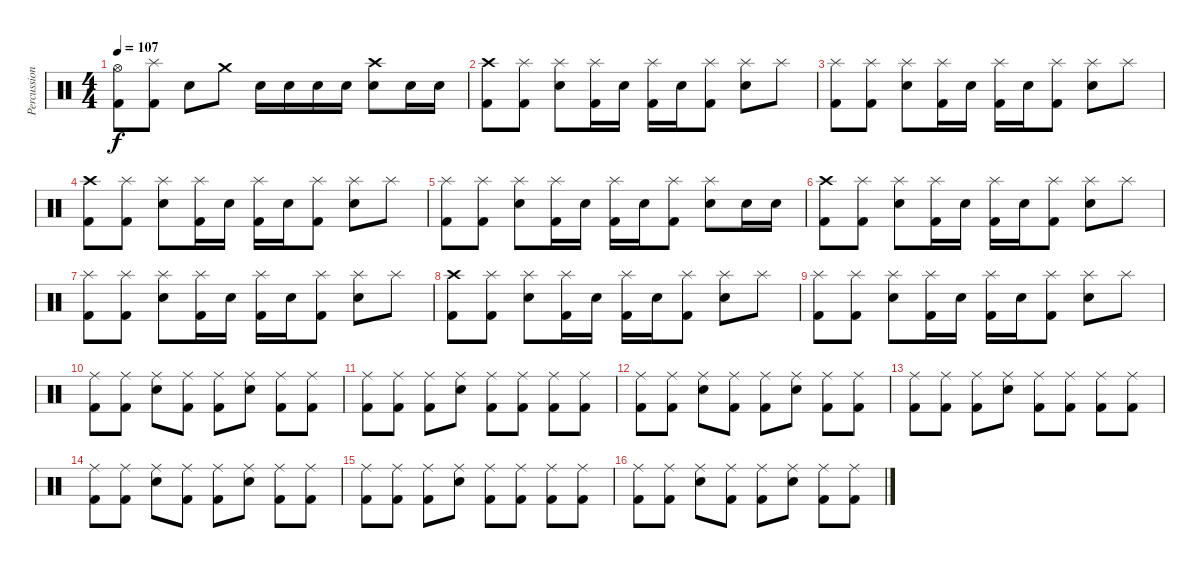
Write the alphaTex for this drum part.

\track ("Percussions" "Percussion") {instrument percussion}
\staff {score}
\articulation defaults
\ts (4 4)
\tempo 107
\clef neutral
\ks c
("Hi-Hat (open)" "Kick (hit) 2").8{dy f} ("Splash (hit)" "Kick (hit) 2").8 "Snare (hit) 2".8 "Crash medium (hit)".8 "Snare (hit) 2".16 "Snare (hit) 2".16 "Snare (hit) 2".16 "Snare (hit) 2".16 ("Crash high (hit)" "Snare (hit) 2").8 "Snare (hit) 2".16 "Snare (hit) 2".16 |
("Crash high (hit)" "Kick (hit) 2").8 ("Splash (hit)" "Kick (hit) 2").8 ("Splash (hit)" "Snare (hit) 2").8 ("Splash (hit)" "Kick (hit) 2").16 "Snare (hit) 2".16 ("Splash (hit)" "Kick (hit) 2").16 "Snare (hit) 2".16 ("Splash (hit)" "Kick (hit) 2").8 ("Splash (hit)" "Snare (hit) 2").8 "Splash (hit)".8 |
("Splash (hit)" "Kick (hit) 2").8 ("Splash (hit)" "Kick (hit) 2").8 ("Splash (hit)" "Snare (hit) 2").8 ("Splash (hit)" "Kick (hit) 2").16 "Snare (hit) 2".16 ("Splash (hit)" "Kick (hit) 2").16 "Snare (hit) 2".16 ("Splash (hit)" "Kick (hit) 2").8 ("Splash (hit)" "Snare (hit) 2").8 "Splash (hit)".8 |
("Crash high (hit)" "Kick (hit) 2").8 ("Splash (hit)" "Kick (hit) 2").8 ("Splash (hit)" "Snare (hit) 2").8 ("Splash (hit)" "Kick (hit) 2").16 "Snare (hit) 2".16 ("Splash (hit)" "Kick (hit) 2").16 "Snare (hit) 2".16 ("Splash (hit)" "Kick (hit) 2").8 ("Splash (hit)" "Snare (hit) 2").8 "Splash (hit)".8 |
("Splash (hit)" "Kick (hit) 2").8 ("Splash (hit)" "Kick (hit) 2").8 ("Splash (hit)" "Snare (hit) 2").8 ("Splash (hit)" "Kick (hit) 2").16 "Snare (hit) 2".16 ("Splash (hit)" "Kick (hit) 2").16 "Snare (hit) 2".16 ("Splash (hit)" "Kick (hit) 2").8 ("Splash (hit)" "Snare (hit) 2").8 "Snare (hit) 2".16 "Snare (hit) 2".16 |
("Crash high (hit)" "Kick (hit) 2").8 ("Splash (hit)" "Kick (hit) 2").8 ("Splash (hit)" "Snare (hit) 2").8 ("Splash (hit)" "Kick (hit) 2").16 "Snare (hit) 2".16 ("Splash (hit)" "Kick (hit) 2").16 "Snare (hit) 2".16 ("Splash (hit)" "Kick (hit) 2").8 ("Splash (hit)" "Snare (hit) 2").8 "Splash (hit)".8 |
("Splash (hit)" "Kick (hit) 2").8 ("Splash (hit)" "Kick (hit) 2").8 ("Splash (hit)" "Snare (hit) 2").8 ("Splash (hit)" "Kick (hit) 2").16 "Snare (hit) 2".16 ("Splash (hit)" "Kick (hit) 2").16 "Snare (hit) 2".16 ("Splash (hit)" "Kick (hit) 2").8 ("Splash (hit)" "Snare (hit) 2").8 "Splash (hit)".8 |
("Crash high (hit)" "Kick (hit) 2").8 ("Splash (hit)" "Kick (hit) 2").8 ("Splash (hit)" "Snare (hit) 2").8 ("Splash (hit)" "Kick (hit) 2").16 "Snare (hit) 2".16 ("Splash (hit)" "Kick (hit) 2").16 "Snare (hit) 2".16 ("Splash (hit)" "Kick (hit) 2").8 ("Splash (hit)" "Snare (hit) 2").8 "Splash (hit)".8 |
("Splash (hit)" "Kick (hit) 2").8 ("Splash (hit)" "Kick (hit) 2").8 ("Splash (hit)" "Snare (hit) 2").8 ("Splash (hit)" "Kick (hit) 2").16 "Snare (hit) 2".16 ("Splash (hit)" "Kick (hit) 2").16 "Snare (hit) 2".16 ("Splash (hit)" "Kick (hit) 2").8 ("Splash (hit)" "Snare (hit) 2").8 "Splash (hit)".8 |
("Ride (middle)" "Kick (hit) 2").8{volume 10} ("Ride (middle)" "Kick (hit) 2").8 ("Ride (middle)" "Snare (hit) 2").8 ("Ride (middle)" "Kick (hit) 2").8 ("Ride (middle)" "Kick (hit) 2").8 ("Ride (middle)" "Snare (hit) 2").8 ("Ride (middle)" "Kick (hit) 2").8 ("Ride (middle)" "Kick (hit) 2").8 |
("Ride (middle)" "Kick (hit) 2").8 ("Ride (middle)" "Kick (hit) 2").8 ("Ride (middle)" "Kick (hit) 2").8 ("Ride (middle)" "Snare (hit) 2").8 ("Ride (middle)" "Kick (hit) 2").8 ("Ride (middle)" "Kick (hit) 2").8 ("Ride (middle)" "Kick (hit) 2").8 ("Ride (middle)" "Kick (hit) 2").8 |
("Ride (middle)" "Kick (hit) 2").8 ("Ride (middle)" "Kick (hit) 2").8 ("Ride (middle)" "Snare (hit) 2").8 ("Ride (middle)" "Kick (hit) 2").8 ("Ride (middle)" "Kick (hit) 2").8 ("Ride (middle)" "Snare (hit) 2").8 ("Ride (middle)" "Kick (hit) 2").8 ("Ride (middle)" "Kick (hit) 2").8 |
("Ride (middle)" "Kick (hit) 2").8 ("Ride (middle)" "Kick (hit) 2").8 ("Ride (middle)" "Kick (hit) 2").8 ("Ride (middle)" "Snare (hit) 2").8 ("Ride (middle)" "Kick (hit) 2").8 ("Ride (middle)" "Kick (hit) 2").8 ("Ride (middle)" "Kick (hit) 2").8 ("Ride (middle)" "Kick (hit) 2").8 |
("Ride (middle)" "Kick (hit) 2").8 ("Ride (middle)" "Kick (hit) 2").8 ("Ride (middle)" "Snare (hit) 2").8 ("Ride (middle)" "Kick (hit) 2").8 ("Ride (middle)" "Kick (hit) 2").8 ("Ride (middle)" "Snare (hit) 2").8 ("Ride (middle)" "Kick (hit) 2").8 ("Ride (middle)" "Kick (hit) 2").8 |
("Ride (middle)" "Kick (hit) 2").8 ("Ride (middle)" "Kick (hit) 2").8 ("Ride (middle)" "Kick (hit) 2").8 ("Ride (middle)" "Snare (hit) 2").8 ("Ride (middle)" "Kick (hit) 2").8 ("Ride (middle)" "Kick (hit) 2").8 ("Ride (middle)" "Kick (hit) 2").8 ("Ride (middle)" "Kick (hit) 2").8 |
("Ride (middle)" "Kick (hit) 2").8 ("Ride (middle)" "Kick (hit) 2").8 ("Ride (middle)" "Snare (hit) 2").8 ("Ride (middle)" "Kick (hit) 2").8 ("Ride (middle)" "Kick (hit) 2").8 ("Ride (middle)" "Snare (hit) 2").8 ("Ride (middle)" "Kick (hit) 2").8 ("Ride (middle)" "Kick (hit) 2").8
